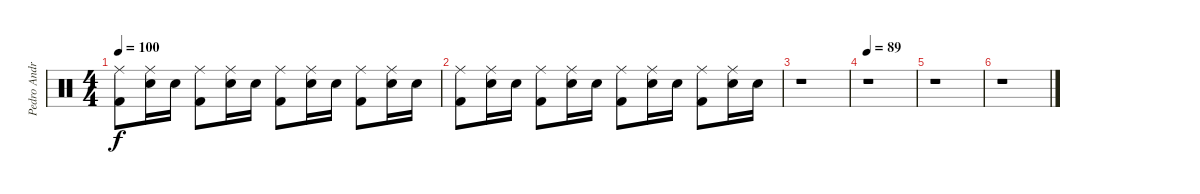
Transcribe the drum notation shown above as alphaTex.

\track ("Pedro Andreu" "Pedro Andr") {instrument percussion}
\staff {score}
\articulation defaults
\ts (4 4)
\tempo 100
\clef neutral
\ks c
("Ride (middle)" "Kick (hit) 2").8{dy f volume 8} ("Ride (middle)" "Snare (hit) 2").16{volume 8} "Snare (hit) 2".16{volume 7} ("Ride (middle)" "Kick (hit) 2").8{volume 7} ("Ride (middle)" "Snare (hit) 2").16{volume 6} "Snare (hit) 2".16{volume 6} ("Ride (middle)" "Kick (hit) 2").8{volume 6} ("Ride (middle)" "Snare (hit) 2").16{volume 6} "Snare (hit) 2".16{volume 5} ("Ride (middle)" "Kick (hit) 2").8{volume 5} ("Ride (middle)" "Snare (hit) 2").16{volume 4} "Snare (hit) 2".16{volume 4} |
("Ride (middle)" "Kick (hit) 2").8{volume 4} ("Ride (middle)" "Snare (hit) 2").16{volume 4} "Snare (hit) 2".16{volume 3} ("Ride (middle)" "Kick (hit) 2").8{volume 3} ("Ride (middle)" "Snare (hit) 2").16{volume 2} "Snare (hit) 2".16{volume 2} ("Ride (middle)" "Kick (hit) 2").8{volume 2} ("Ride (middle)" "Snare (hit) 2").16{volume 2} "Snare (hit) 2".16{volume 1} ("Ride (middle)" "Kick (hit) 2").8{volume 1} ("Ride (middle)" "Snare (hit) 2").16{volume 0} "Snare (hit) 2".16{volume 0} |
r.1 |
\tempo 89
r.1 |
r.1 |
r.1
